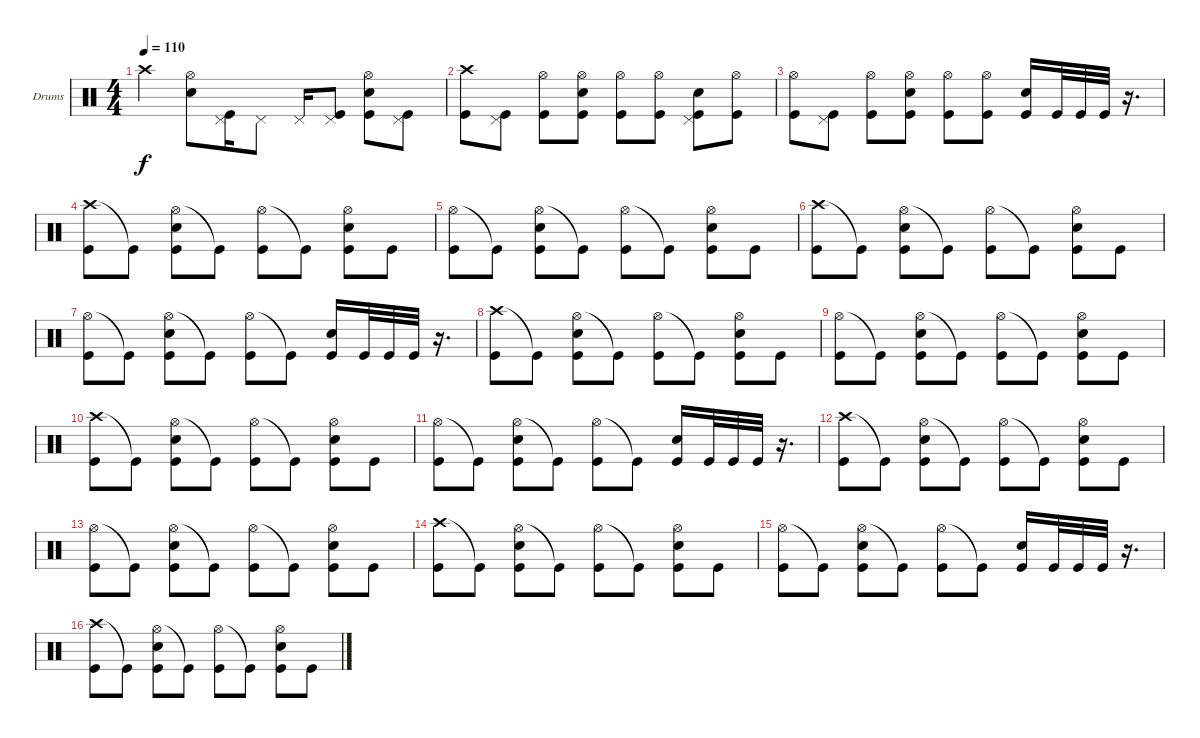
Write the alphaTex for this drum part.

\bracketExtendMode groupsimilarinstruments
\firstSystemTrackNameOrientation horizontal
\otherSystemsTrackNameOrientation horizontal
\track ("Drumkit" "Drums") {instrument percussion}
\staff {score}
\articulation defaults
\ts (4 4)
\tempo 110
\clef neutral
\ks c "Crash high (hit)".4{dy f}
("Hi-Hat (open)" "Snare (hit) 2").8 ("Pedal Hi-Hat (hit)" "Kick (hit)").16 "Pedal Hi-Hat (hit)".8 "Pedal Hi-Hat (hit)".16 ("Pedal Hi-Hat (hit)" "Kick (hit)").8 ("Hi-Hat (open)" "Snare (hit) 2" "Kick (hit)").8 ("Pedal Hi-Hat (hit)" "Kick (hit)").8 |
("Crash high (hit)" "Kick (hit)").8 ("Pedal Hi-Hat (hit)" "Kick (hit)").8 ("Hi-Hat (open)" "Kick (hit)").8 ("Hi-Hat (open)" "Snare (hit) 2" "Kick (hit)").8 ("Hi-Hat (open)" "Kick (hit)").8 ("Hi-Hat (open)" "Kick (hit)").8 ("Pedal Hi-Hat (hit)" "Snare (hit) 2" "Kick (hit)").8 ("Hi-Hat (open)" "Kick (hit)").8 |
("Hi-Hat (open)" "Kick (hit)").8 ("Pedal Hi-Hat (hit)" "Kick (hit)").8 ("Hi-Hat (open)" "Kick (hit)").8 ("Hi-Hat (open)" "Snare (hit) 2" "Kick (hit)").8 ("Hi-Hat (open)" "Kick (hit)").8 ("Hi-Hat (open)" "Kick (hit)").8 ("Snare (hit) 2" "Kick (hit)").16 "Kick (hit)".32 "Kick (hit)".32 "Kick (hit)".32 r.16{d} |
("Crash high (hit)" "Kick (hit)").8 "Kick (hit)"{t}.8 ("Hi-Hat (open)" "Snare (hit) 2" "Kick (hit)").8 "Kick (hit)"{t}.8 ("Hi-Hat (open)" "Kick (hit)").8 "Kick (hit)"{t}.8 ("Hi-Hat (open)" "Snare (hit) 2" "Kick (hit)").8 "Kick (hit)".8 |
("Hi-Hat (open)" "Kick (hit)").8 "Kick (hit)"{t}.8 ("Hi-Hat (open)" "Snare (hit) 2" "Kick (hit)").8 "Kick (hit)"{t}.8 ("Hi-Hat (open)" "Kick (hit)").8 "Kick (hit)"{t}.8 ("Hi-Hat (open)" "Snare (hit) 2" "Kick (hit)").8 "Kick (hit)".8 |
("Crash high (hit)" "Kick (hit)").8 "Kick (hit)"{t}.8 ("Hi-Hat (open)" "Snare (hit) 2" "Kick (hit)").8 "Kick (hit)"{t}.8 ("Hi-Hat (open)" "Kick (hit)").8 "Kick (hit)"{t}.8 ("Hi-Hat (open)" "Snare (hit) 2" "Kick (hit)").8 "Kick (hit)".8 |
("Hi-Hat (open)" "Kick (hit)").8 "Kick (hit)"{t}.8 ("Hi-Hat (open)" "Snare (hit) 2" "Kick (hit)").8 "Kick (hit)"{t}.8 ("Hi-Hat (open)" "Kick (hit)").8 "Kick (hit)"{t}.8 ("Snare (hit) 2" "Kick (hit)").16 "Kick (hit)".32 "Kick (hit)".32 "Kick (hit)".32 r.16{d} |
("Crash high (hit)" "Kick (hit)").8 "Kick (hit)"{t}.8 ("Hi-Hat (open)" "Snare (hit) 2" "Kick (hit)").8 "Kick (hit)"{t}.8 ("Hi-Hat (open)" "Kick (hit)").8 "Kick (hit)"{t}.8 ("Hi-Hat (open)" "Snare (hit) 2" "Kick (hit)").8 "Kick (hit)".8 |
("Hi-Hat (open)" "Kick (hit)").8 "Kick (hit)"{t}.8 ("Hi-Hat (open)" "Snare (hit) 2" "Kick (hit)").8 "Kick (hit)"{t}.8 ("Hi-Hat (open)" "Kick (hit)").8 "Kick (hit)"{t}.8 ("Hi-Hat (open)" "Snare (hit) 2" "Kick (hit)").8 "Kick (hit)".8 |
("Crash high (hit)" "Kick (hit)").8 "Kick (hit)"{t}.8 ("Hi-Hat (open)" "Snare (hit) 2" "Kick (hit)").8 "Kick (hit)"{t}.8 ("Hi-Hat (open)" "Kick (hit)").8 "Kick (hit)"{t}.8 ("Hi-Hat (open)" "Snare (hit) 2" "Kick (hit)").8 "Kick (hit)".8 |
("Hi-Hat (open)" "Kick (hit)").8 "Kick (hit)"{t}.8 ("Hi-Hat (open)" "Snare (hit) 2" "Kick (hit)").8 "Kick (hit)"{t}.8 ("Hi-Hat (open)" "Kick (hit)").8 "Kick (hit)"{t}.8 ("Snare (hit) 2" "Kick (hit)").16 "Kick (hit)".32 "Kick (hit)".32 "Kick (hit)".32 r.16{d} |
("Crash high (hit)" "Kick (hit)").8 "Kick (hit)"{t}.8 ("Hi-Hat (open)" "Snare (hit) 2" "Kick (hit)").8 "Kick (hit)"{t}.8 ("Hi-Hat (open)" "Kick (hit)").8 "Kick (hit)"{t}.8 ("Hi-Hat (open)" "Snare (hit) 2" "Kick (hit)").8 "Kick (hit)".8 |
("Hi-Hat (open)" "Kick (hit)").8 "Kick (hit)"{t}.8 ("Hi-Hat (open)" "Snare (hit) 2" "Kick (hit)").8 "Kick (hit)"{t}.8 ("Hi-Hat (open)" "Kick (hit)").8 "Kick (hit)"{t}.8 ("Hi-Hat (open)" "Snare (hit) 2" "Kick (hit)").8 "Kick (hit)".8 |
("Crash high (hit)" "Kick (hit)").8 "Kick (hit)"{t}.8 ("Hi-Hat (open)" "Snare (hit) 2" "Kick (hit)").8 "Kick (hit)"{t}.8 ("Hi-Hat (open)" "Kick (hit)").8 "Kick (hit)"{t}.8 ("Hi-Hat (open)" "Snare (hit) 2" "Kick (hit)").8 "Kick (hit)".8 |
("Hi-Hat (open)" "Kick (hit)").8 "Kick (hit)"{t}.8 ("Hi-Hat (open)" "Snare (hit) 2" "Kick (hit)").8 "Kick (hit)"{t}.8 ("Hi-Hat (open)" "Kick (hit)").8 "Kick (hit)"{t}.8 ("Snare (hit) 2" "Kick (hit)").16 "Kick (hit)".32 "Kick (hit)".32 "Kick (hit)".32 r.16{d} |
("Crash high (hit)" "Kick (hit)").8 "Kick (hit)"{t}.8 ("Hi-Hat (open)" "Snare (hit) 2" "Kick (hit)").8 "Kick (hit)"{t}.8 ("Hi-Hat (open)" "Kick (hit)").8 "Kick (hit)"{t}.8 ("Hi-Hat (open)" "Snare (hit) 2" "Kick (hit)").8 "Kick (hit)".8
